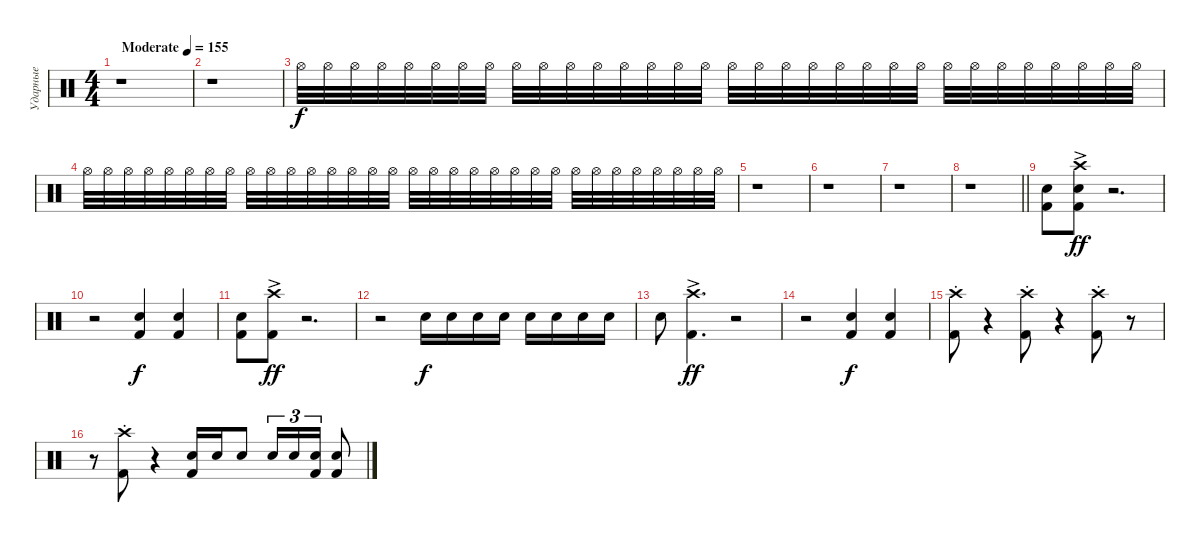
\track ("Ударные" "Ударные") {instrument percussion}
\staff
\articulation defaults
\ts (4 4)
\tempo (155 "Moderate")
\clef neutral
\ks c
r.1{dy f volume 0} |
r.1 |
"Hi-Hat (open)".32{volume 9} "Hi-Hat (open)".32 "Hi-Hat (open)".32 "Hi-Hat (open)".32 "Hi-Hat (open)".32 "Hi-Hat (open)".32 "Hi-Hat (open)".32 "Hi-Hat (open)".32 "Hi-Hat (open)".32 "Hi-Hat (open)".32 "Hi-Hat (open)".32 "Hi-Hat (open)".32 "Hi-Hat (open)".32 "Hi-Hat (open)".32 "Hi-Hat (open)".32 "Hi-Hat (open)".32 "Hi-Hat (open)".32 "Hi-Hat (open)".32 "Hi-Hat (open)".32 "Hi-Hat (open)".32 "Hi-Hat (open)".32 "Hi-Hat (open)".32 "Hi-Hat (open)".32 "Hi-Hat (open)".32 "Hi-Hat (open)".32 "Hi-Hat (open)".32 "Hi-Hat (open)".32 "Hi-Hat (open)".32 "Hi-Hat (open)".32 "Hi-Hat (open)".32 "Hi-Hat (open)".32 "Hi-Hat (open)".32 |
"Hi-Hat (open)".32{volume 1} "Hi-Hat (open)".32 "Hi-Hat (open)".32 "Hi-Hat (open)".32 "Hi-Hat (open)".32 "Hi-Hat (open)".32 "Hi-Hat (open)".32 "Hi-Hat (open)".32 "Hi-Hat (open)".32 "Hi-Hat (open)".32 "Hi-Hat (open)".32 "Hi-Hat (open)".32 "Hi-Hat (open)".32 "Hi-Hat (open)".32 "Hi-Hat (open)".32 "Hi-Hat (open)".32 "Hi-Hat (open)".32 "Hi-Hat (open)".32 "Hi-Hat (open)".32 "Hi-Hat (open)".32 "Hi-Hat (open)".32 "Hi-Hat (open)".32 "Hi-Hat (open)".32 "Hi-Hat (open)".32 "Hi-Hat (open)".32 "Hi-Hat (open)".32 "Hi-Hat (open)".32 "Hi-Hat (open)".32 "Hi-Hat (open)".32 "Hi-Hat (open)".32 "Hi-Hat (open)".32 "Hi-Hat (open)".32 |
r.1 |
r.1{volume 12} |
r.1 |
\barLineRight lightlight
r.1 |
("Kick (hit) 2" "Snare (hit) 2").8 ("Kick (hit) 2" "Snare (hit) 2" "Crash high (hit)"{ac}).8{dy ff} r.2{d} |
r.2 ("Kick (hit) 2" "Snare (hit) 2").4{dy f} ("Kick (hit) 2" "Snare (hit) 2").4 |
("Kick (hit) 2" "Snare (hit) 2").8 ("Kick (hit) 2" "Crash high (hit)"{ac}).8{dy ff} r.2{d} |
r.2 "Snare (hit) 2".16{dy f} "Snare (hit) 2".16 "Snare (hit) 2".16 "Snare (hit) 2".16 "Snare (hit) 2".16 "Snare (hit) 2".16 "Snare (hit) 2".16 "Snare (hit) 2".16 |
"Snare (hit) 2".8 ("Kick (hit) 2" "Crash high (hit)"{ac}).4{d dy ff} r.2 |
r.2 ("Kick (hit) 2" "Snare (hit) 2").4{dy f} ("Kick (hit) 2" "Snare (hit) 2").4 |
("Kick (hit) 2"{st} "Crash high (hit)"{st}).8 r.4 ("Kick (hit) 2"{st} "Crash high (hit)"{st}).8 r.4 ("Kick (hit) 2"{st} "Crash high (hit)"{st}).8 r.8 |
r.8 ("Kick (hit) 2"{st} "Crash high (hit)"{st}).8 r.4 ("Kick (hit) 2" "Snare (hit) 2").16 "Snare (hit) 2".16 "Snare (hit) 2".8 "Snare (hit) 2".16{tu (3 2)} "Snare (hit) 2".16{tu (3 2)} ("Kick (hit) 2" "Snare (hit) 2").16{tu (3 2)} ("Kick (hit) 2" "Snare (hit) 2").8
